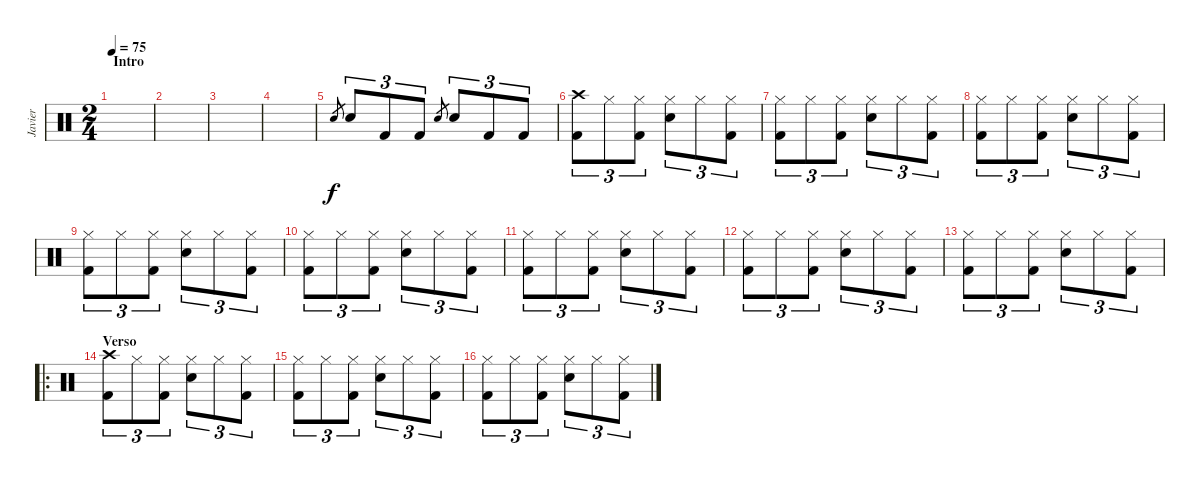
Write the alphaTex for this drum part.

\track ("Javier" "Javier") {instrument percussion}
\staff {score}
\articulation defaults
\ts (2 4)
\section ("" "Intro")
\tempo 75
\clef neutral
\ks c
|
|
|
|
"Snare (hit) 2".8{gr} "Snare (hit) 2".8{tu (3 2)} "Kick (hit) 2".8{tu (3 2)} "Kick (hit) 2".8{tu (3 2)} "Snare (hit) 2".8{gr} "Snare (hit) 2".8{tu (3 2)} "Kick (hit) 2".8{tu (3 2)} "Kick (hit) 2".8{tu (3 2)} |
("Crash high (hit)" "Kick (hit) 2").8{tu (3 2)} "Hi-Hat (closed)".8{tu (3 2)} ("Hi-Hat (closed)" "Kick (hit) 2").8{tu (3 2)} ("Hi-Hat (closed)" "Snare (hit) 2").8{tu (3 2)} "Hi-Hat (closed)".8{tu (3 2)} ("Hi-Hat (closed)" "Kick (hit) 2").8{tu (3 2)} |
("Hi-Hat (closed)" "Kick (hit) 2").8{tu (3 2)} "Hi-Hat (closed)".8{tu (3 2)} ("Hi-Hat (closed)" "Kick (hit) 2").8{tu (3 2)} ("Hi-Hat (closed)" "Snare (hit) 2").8{tu (3 2)} "Hi-Hat (closed)".8{tu (3 2)} ("Hi-Hat (closed)" "Kick (hit) 2").8{tu (3 2)} |
("Hi-Hat (closed)" "Kick (hit) 2").8{tu (3 2)} "Hi-Hat (closed)".8{tu (3 2)} ("Hi-Hat (closed)" "Kick (hit) 2").8{tu (3 2)} ("Hi-Hat (closed)" "Snare (hit) 2").8{tu (3 2)} "Hi-Hat (closed)".8{tu (3 2)} ("Hi-Hat (closed)" "Kick (hit) 2").8{tu (3 2)} |
("Hi-Hat (closed)" "Kick (hit) 2").8{tu (3 2)} "Hi-Hat (closed)".8{tu (3 2)} ("Hi-Hat (closed)" "Kick (hit) 2").8{tu (3 2)} ("Hi-Hat (closed)" "Snare (hit) 2").8{tu (3 2)} "Hi-Hat (closed)".8{tu (3 2)} ("Hi-Hat (closed)" "Kick (hit) 2").8{tu (3 2)} |
("Hi-Hat (closed)" "Kick (hit) 2").8{tu (3 2)} "Hi-Hat (closed)".8{tu (3 2)} ("Hi-Hat (closed)" "Kick (hit) 2").8{tu (3 2)} ("Hi-Hat (closed)" "Snare (hit) 2").8{tu (3 2)} "Hi-Hat (closed)".8{tu (3 2)} ("Hi-Hat (closed)" "Kick (hit) 2").8{tu (3 2)} |
("Hi-Hat (closed)" "Kick (hit) 2").8{tu (3 2)} "Hi-Hat (closed)".8{tu (3 2)} ("Hi-Hat (closed)" "Kick (hit) 2").8{tu (3 2)} ("Hi-Hat (closed)" "Snare (hit) 2").8{tu (3 2)} "Hi-Hat (closed)".8{tu (3 2)} ("Hi-Hat (closed)" "Kick (hit) 2").8{tu (3 2)} |
("Hi-Hat (closed)" "Kick (hit) 2").8{tu (3 2)} "Hi-Hat (closed)".8{tu (3 2)} ("Hi-Hat (closed)" "Kick (hit) 2").8{tu (3 2)} ("Hi-Hat (closed)" "Snare (hit) 2").8{tu (3 2)} "Hi-Hat (closed)".8{tu (3 2)} ("Hi-Hat (closed)" "Kick (hit) 2").8{tu (3 2)} |
("Hi-Hat (closed)" "Kick (hit) 2").8{tu (3 2)} "Hi-Hat (closed)".8{tu (3 2)} ("Hi-Hat (closed)" "Kick (hit) 2").8{tu (3 2)} ("Hi-Hat (closed)" "Snare (hit) 2").8{tu (3 2)} "Hi-Hat (closed)".8{tu (3 2)} ("Hi-Hat (closed)" "Kick (hit) 2").8{tu (3 2)} |
\ro
\section ("" "Verso")
("Crash high (hit)" "Kick (hit) 2").8{tu (3 2)} "Hi-Hat (closed)".8{tu (3 2)} ("Hi-Hat (closed)" "Kick (hit) 2").8{tu (3 2)} ("Hi-Hat (closed)" "Snare (hit) 2").8{tu (3 2)} "Hi-Hat (closed)".8{tu (3 2)} ("Hi-Hat (closed)" "Kick (hit) 2").8{tu (3 2)} |
("Hi-Hat (closed)" "Kick (hit) 2").8{tu (3 2)} "Hi-Hat (closed)".8{tu (3 2)} ("Hi-Hat (closed)" "Kick (hit) 2").8{tu (3 2)} ("Hi-Hat (closed)" "Snare (hit) 2").8{tu (3 2)} "Hi-Hat (closed)".8{tu (3 2)} ("Hi-Hat (closed)" "Kick (hit) 2").8{tu (3 2)} |
("Hi-Hat (closed)" "Kick (hit) 2").8{tu (3 2)} "Hi-Hat (closed)".8{tu (3 2)} ("Hi-Hat (closed)" "Kick (hit) 2").8{tu (3 2)} ("Hi-Hat (closed)" "Snare (hit) 2").8{tu (3 2)} "Hi-Hat (closed)".8{tu (3 2)} ("Hi-Hat (closed)" "Kick (hit) 2").8{tu (3 2)}
